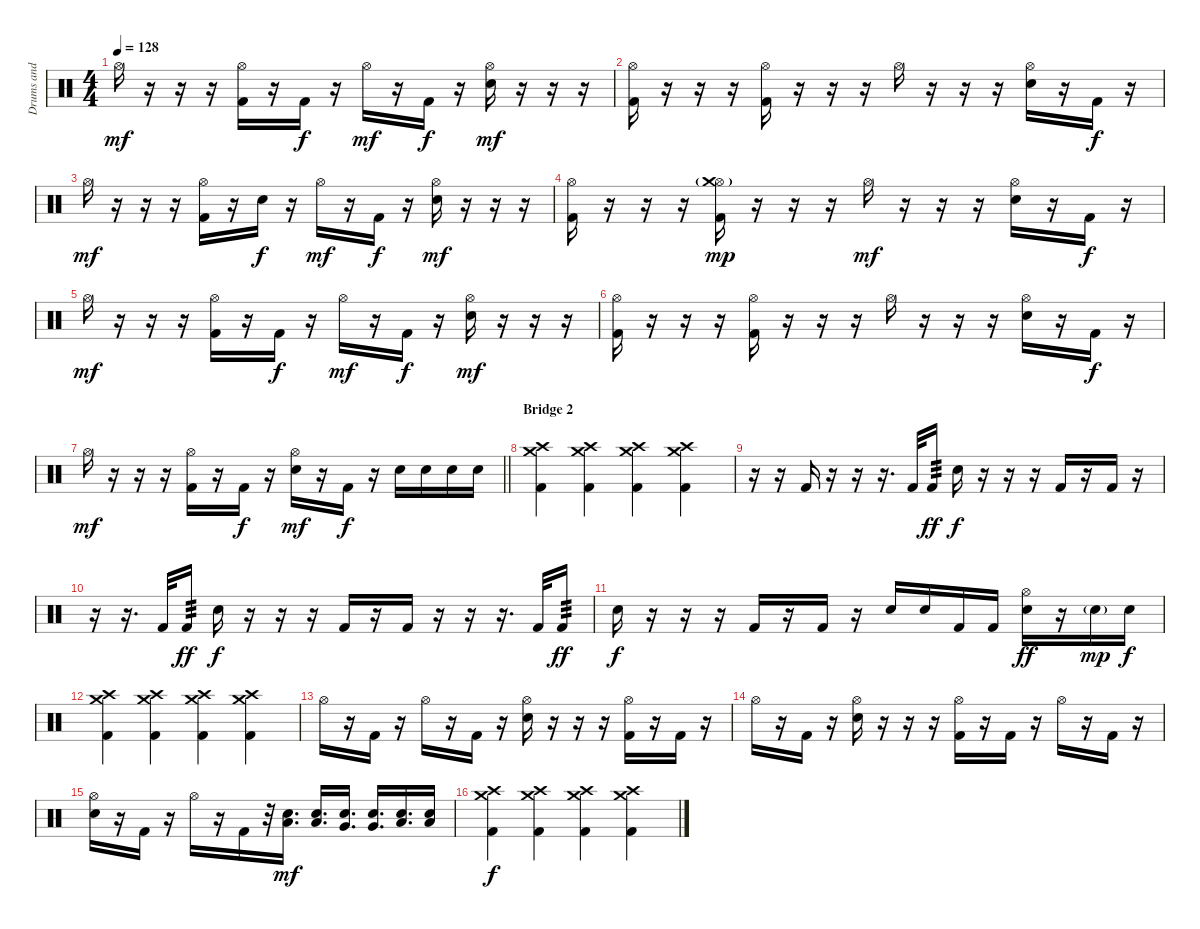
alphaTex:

\track ("Drums and Percussions" "Drums and ") {instrument percussion}
\staff {score}
\articulation defaults
\ts (4 4)
\tempo 128
\clef neutral
\ks c "Hi-Hat (open)".16{dy mf}
r.16 r.16 r.16 ("Hi-Hat (open)" "Kick (hit) 2").16 r.16 "Kick (hit) 2".16{dy f} r.16 "Hi-Hat (open)".16{dy mf} r.16 "Kick (hit) 2".16{dy f} r.16 ("Hi-Hat (open)" "Electric Snare (hit)").16{dy mf} r.16 r.16 r.16 |
("Hi-Hat (open)" "Kick (hit) 2").16 r.16 r.16 r.16 ("Hi-Hat (open)" "Kick (hit) 2").16 r.16 r.16 r.16 "Hi-Hat (open)".16 r.16 r.16 r.16 ("Hi-Hat (open)" "Electric Snare (hit)").16 r.16 "Kick (hit) 2".16{dy f} r.16 |
"Hi-Hat (open)".16{dy mf} r.16 r.16 r.16 ("Hi-Hat (open)" "Kick (hit) 2").16 r.16 "Electric Snare (hit)".16{dy f} r.16 "Hi-Hat (open)".16{dy mf} r.16 "Kick (hit) 2".16{dy f} r.16 ("Hi-Hat (open)" "Electric Snare (hit)").16{dy mf} r.16 r.16 r.16 |
("Hi-Hat (open)" "Kick (hit) 2").16 r.16 r.16 r.16 ("Hi-Hat (open)" "Crash medium (hit)"{g} "Kick (hit) 2").16{dy mp} r.16 r.16 r.16 "Hi-Hat (open)".16{dy mf} r.16 r.16 r.16 ("Hi-Hat (open)" "Electric Snare (hit)").16 r.16 "Kick (hit) 2".16{dy f} r.16 |
"Hi-Hat (open)".16{dy mf} r.16 r.16 r.16 ("Hi-Hat (open)" "Kick (hit) 2").16 r.16 "Kick (hit) 2".16{dy f} r.16 "Hi-Hat (open)".16{dy mf} r.16 "Kick (hit) 2".16{dy f} r.16 ("Hi-Hat (open)" "Electric Snare (hit)").16{dy mf} r.16 r.16 r.16 |
("Hi-Hat (open)" "Kick (hit) 2").16 r.16 r.16 r.16 ("Hi-Hat (open)" "Kick (hit) 2").16 r.16 r.16 r.16 "Hi-Hat (open)".16 r.16 r.16 r.16 ("Hi-Hat (open)" "Electric Snare (hit)").16 r.16 "Kick (hit) 2".16{dy f} r.16 |
\barLineRight lightlight "Hi-Hat (open)".16{dy mf}
r.16 r.16 r.16 ("Hi-Hat (open)" "Kick (hit) 2").16 r.16 "Kick (hit) 2".16{dy f} r.16 ("Hi-Hat (open)" "Electric Snare (hit)").16{dy mf} r.16 "Kick (hit) 2".16{dy f} r.16 "Electric Snare (hit)".16 "Electric Snare (hit)".16 "Electric Snare (hit)".16 "Electric Snare (hit)".16 |
\section ("" "Bridge 2")
("Crash medium (hit)" "Crash high (hit)" "Kick (hit) 2").4 ("Crash medium (hit)" "Crash high (hit)" "Kick (hit) 2").4 ("Crash medium (hit)" "Crash high (hit)" "Kick (hit) 2").4 ("Crash medium (hit)" "Crash high (hit)" "Kick (hit) 2").4 |
r.16 r.16 "Kick (hit) 2".16 r.16 r.16 r.16{d} "Kick (hit) 2".32 "Kick (hit) 2".16{tp 3 dy ff} "Electric Snare (hit)".16{dy f} r.16 r.16 r.16 "Kick (hit) 2".16 r.16 "Kick (hit) 2".16 r.16 |
r.16 r.16{d} "Kick (hit) 2".32 "Kick (hit) 2".16{tp 3 dy ff} "Electric Snare (hit)".16{dy f} r.16 r.16 r.16 "Kick (hit) 2".16 r.16 "Kick (hit) 2".16 r.16 r.16 r.16{d} "Kick (hit) 2".32 "Kick (hit) 2".16{tp 3 dy ff} |
"Electric Snare (hit)".16{dy f} r.16 r.16 r.16 "Kick (hit) 2".16 r.16 "Kick (hit) 2".16 r.16 "Electric Snare (hit)".16 "Electric Snare (hit)".16 "Kick (hit) 2".16 "Kick (hit) 2".16 ("Hi-Hat (open)" "Electric Snare (hit)").16{dy ff} r.16 "Electric Snare (hit)"{g}.16{dy mp} "Electric Snare (hit)".16{dy f} |
("Crash medium (hit)" "Crash high (hit)" "Kick (hit) 2").4 ("Crash medium (hit)" "Crash high (hit)" "Kick (hit) 2").4 ("Crash medium (hit)" "Crash high (hit)" "Kick (hit) 2").4 ("Crash medium (hit)" "Crash high (hit)" "Kick (hit) 2").4 |
"Hi-Hat (open)".16 r.16 "Kick (hit) 2".16 r.16 "Hi-Hat (open)".16 r.16 "Kick (hit) 2".16 r.16 ("Hi-Hat (open)" "Electric Snare (hit)").16 r.16 r.16 r.16 ("Hi-Hat (open)" "Kick (hit) 2").16 r.16 "Kick (hit) 2".16 r.16 |
"Hi-Hat (open)".16 r.16 "Kick (hit) 2".16 r.16 ("Hi-Hat (open)" "Electric Snare (hit)").16 r.16 r.16 r.16 ("Hi-Hat (open)" "Kick (hit) 2").16 r.16 "Kick (hit) 2".16 r.16 "Hi-Hat (open)".16 r.16 "Kick (hit) 2".16 r.16 |
("Hi-Hat (open)" "Electric Snare (hit)").16 r.16 "Kick (hit) 2".16 r.16 "Hi-Hat (open)".16 r.16 "Kick (hit) 2".16 r.32 ("Low Tom (hit)" "Electric Snare (hit)").16{d dy mf} ("Low Tom (hit)" "Electric Snare (hit)").16{d} ("Very Low Tom (hit)" "Electric Snare (hit)").16{d} ("Very Low Tom (hit)" "Electric Snare (hit)").16{d} ("Low Floor Tom (hit)" "Electric Snare (hit)").16{d} ("Low Floor Tom (hit)" "Electric Snare (hit)").16 |
("Crash medium (hit)" "Crash high (hit)" "Kick (hit) 2").4{dy f} ("Crash medium (hit)" "Crash high (hit)" "Kick (hit) 2").4 ("Crash medium (hit)" "Crash high (hit)" "Kick (hit) 2").4 ("Crash medium (hit)" "Crash high (hit)" "Kick (hit) 2").4
